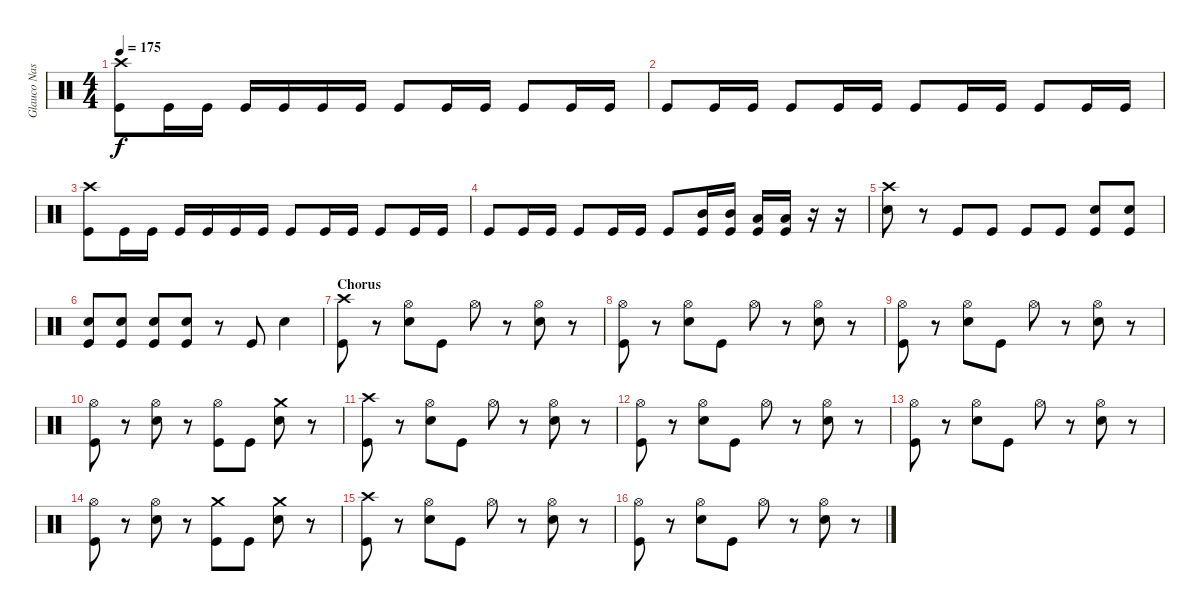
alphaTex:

\track ("Glauco Nastácia" "Glauco Nas") {instrument percussion}
\staff {score}
\articulation defaults
\ts (4 4)
\tempo 175
\clef neutral
\ks c
("Crash high (hit)" "Kick (hit)").8{dy f} "Kick (hit)".16 "Kick (hit)".16 "Kick (hit)".16 "Kick (hit)".16 "Kick (hit)".16 "Kick (hit)".16 "Kick (hit)".8 "Kick (hit)".16 "Kick (hit)".16 "Kick (hit)".8 "Kick (hit)".16 "Kick (hit)".16 |
"Kick (hit)".8 "Kick (hit)".16 "Kick (hit)".16 "Kick (hit)".8 "Kick (hit)".16 "Kick (hit)".16 "Kick (hit)".8 "Kick (hit)".16 "Kick (hit)".16 "Kick (hit)".8 "Kick (hit)".16 "Kick (hit)".16 |
("Crash high (hit)" "Kick (hit)").8 "Kick (hit)".16 "Kick (hit)".16 "Kick (hit)".16 "Kick (hit)".16 "Kick (hit)".16 "Kick (hit)".16 "Kick (hit)".8 "Kick (hit)".16 "Kick (hit)".16 "Kick (hit)".8 "Kick (hit)".16 "Kick (hit)".16 |
"Kick (hit)".8 "Kick (hit)".16 "Kick (hit)".16 "Kick (hit)".8 "Kick (hit)".16 "Kick (hit)".16 "Kick (hit)".8 ("Mid Tom (hit)" "Kick (hit)").16 ("Mid Tom (hit)" "Kick (hit)").16 ("Low Tom (hit)" "Kick (hit)").16 ("Low Tom (hit)" "Kick (hit)").16 r.16 r.16 |
("Crash high (hit)" "Electric Snare (hit)").8 r.8 "Kick (hit)".8 "Kick (hit)".8 "Kick (hit)".8 "Kick (hit)".8 ("Electric Snare (hit)" "Kick (hit)").8 ("Electric Snare (hit)" "Kick (hit)").8 |
("Electric Snare (hit)" "Kick (hit)").8 ("Electric Snare (hit)" "Kick (hit)").8 ("Electric Snare (hit)" "Kick (hit)").8 ("Electric Snare (hit)" "Kick (hit)").8 r.8 "Kick (hit)".8 "Electric Snare (hit)".4 |
\section ("" "Chorus")
("Crash high (hit)" "Kick (hit)").8 r.8 ("Hi-Hat (open)" "Electric Snare (hit)").8 "Kick (hit)".8 "Hi-Hat (open)".8 r.8 ("Hi-Hat (open)" "Electric Snare (hit)").8 r.8 |
("Hi-Hat (open)" "Kick (hit)").8 r.8 ("Hi-Hat (open)" "Electric Snare (hit)").8 "Kick (hit)".8 "Hi-Hat (open)".8 r.8 ("Hi-Hat (open)" "Electric Snare (hit)").8 r.8 |
("Hi-Hat (open)" "Kick (hit)").8 r.8 ("Hi-Hat (open)" "Electric Snare (hit)").8 "Kick (hit)".8 "Hi-Hat (open)".8 r.8 ("Hi-Hat (open)" "Electric Snare (hit)").8 r.8 |
("Hi-Hat (open)" "Kick (hit)").8 r.8 ("Hi-Hat (open)" "Electric Snare (hit)").8 r.8 ("Hi-Hat (open)" "Kick (hit)").8 "Kick (hit)".8 ("Crash medium (hit)" "Electric Snare (hit)").8 r.8 |
("Crash high (hit)" "Kick (hit)").8 r.8 ("Hi-Hat (open)" "Electric Snare (hit)").8 "Kick (hit)".8 "Hi-Hat (open)".8 r.8 ("Hi-Hat (open)" "Electric Snare (hit)").8 r.8 |
("Hi-Hat (open)" "Kick (hit)").8 r.8 ("Hi-Hat (open)" "Electric Snare (hit)").8 "Kick (hit)".8 "Hi-Hat (open)".8 r.8 ("Hi-Hat (open)" "Electric Snare (hit)").8 r.8 |
("Hi-Hat (open)" "Kick (hit)").8 r.8 ("Hi-Hat (open)" "Electric Snare (hit)").8 "Kick (hit)".8 "Hi-Hat (open)".8 r.8 ("Hi-Hat (open)" "Electric Snare (hit)").8 r.8 |
("Hi-Hat (open)" "Kick (hit)").8 r.8 ("Hi-Hat (open)" "Electric Snare (hit)").8 r.8 ("Crash medium (hit)" "Kick (hit)").8 "Kick (hit)".8 ("Crash medium (hit)" "Electric Snare (hit)").8 r.8 |
("Crash high (hit)" "Kick (hit)").8 r.8 ("Hi-Hat (open)" "Electric Snare (hit)").8 "Kick (hit)".8 "Hi-Hat (open)".8 r.8 ("Hi-Hat (open)" "Electric Snare (hit)").8 r.8 |
("Hi-Hat (open)" "Kick (hit)").8 r.8 ("Hi-Hat (open)" "Electric Snare (hit)").8 "Kick (hit)".8 "Hi-Hat (open)".8 r.8 ("Hi-Hat (open)" "Electric Snare (hit)").8 r.8
